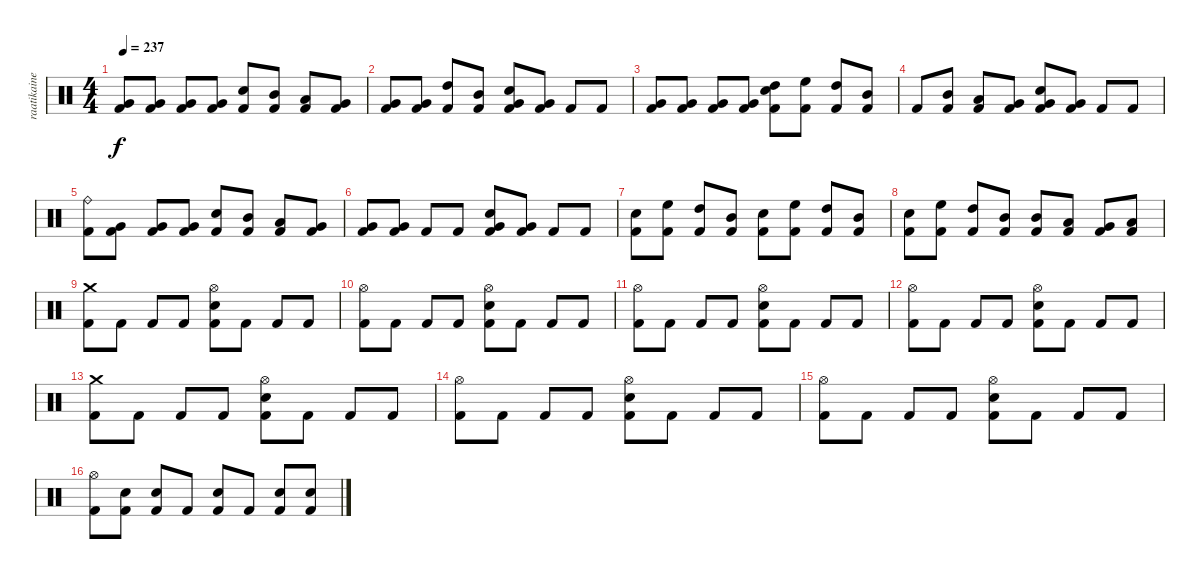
\track ("raatikainen" "raatikaine") {instrument percussion}
\staff {score}
\articulation defaults
\ts (4 4)
\tempo 237
\clef neutral
\ks c
("Very Low Tom (hit)" "Kick (hit) 2").8{dy f} ("Very Low Tom (hit)" "Kick (hit) 2").8 ("Very Low Tom (hit)" "Kick (hit) 2").8 ("Very Low Tom (hit)" "Kick (hit) 2").8 ("Snare (hit) 2" "Kick (hit) 2").8 ("Mid Tom (hit)" "Kick (hit) 2").8 ("Low Tom (hit)" "Kick (hit) 2").8 ("Very Low Tom (hit)" "Kick (hit) 2").8 |
("Very Low Tom (hit)" "Kick (hit) 2").8 ("Very Low Tom (hit)" "Kick (hit) 2").8 ("High Tom (hit)" "Kick (hit) 2").8 ("Mid Tom (hit)" "Kick (hit) 2").8 ("Very Low Tom (hit)" "Snare (hit) 2" "Kick (hit) 2").8 ("Very Low Tom (hit)" "Kick (hit) 2").8 "Kick (hit) 2".8 "Kick (hit) 2".8 |
("Very Low Tom (hit)" "Kick (hit) 2").8 ("Very Low Tom (hit)" "Kick (hit) 2").8 ("Very Low Tom (hit)" "Kick (hit) 2").8 ("Very Low Tom (hit)" "Kick (hit) 2").8 ("High Tom (hit)" "Snare (hit) 2" "Kick (hit) 2").8 ("High Floor Tom (hit)" "Kick (hit) 2").8 ("High Tom (hit)" "Kick (hit) 2").8 ("Mid Tom (hit)" "Kick (hit) 2").8 |
"Kick (hit) 2".8 ("Mid Tom (hit)" "Kick (hit) 2").8 ("Low Tom (hit)" "Kick (hit) 2").8 ("Very Low Tom (hit)" "Kick (hit) 2").8 ("Snare (hit) 2" "Very Low Tom (hit)" "Kick (hit) 2").8 ("Very Low Tom (hit)" "Kick (hit) 2").8 "Kick (hit) 2".8 "Kick (hit) 2".8 |
("Ride (bell)" "Kick (hit) 2").8{txt ""} ("Very Low Tom (hit)" "Kick (hit) 2").8 ("Very Low Tom (hit)" "Kick (hit) 2").8 ("Very Low Tom (hit)" "Kick (hit) 2").8 ("Snare (hit) 2" "Kick (hit) 2").8 ("Mid Tom (hit)" "Kick (hit) 2").8 ("Low Tom (hit)" "Kick (hit) 2").8 ("Very Low Tom (hit)" "Kick (hit) 2").8 |
("Very Low Tom (hit)" "Kick (hit) 2").8 ("Very Low Tom (hit)" "Kick (hit) 2").8 "Kick (hit) 2".8 "Kick (hit) 2".8 ("Snare (hit) 2" "Very Low Tom (hit)" "Kick (hit) 2").8 ("Very Low Tom (hit)" "Kick (hit) 2").8 "Kick (hit) 2".8 "Kick (hit) 2".8 |
("Snare (hit) 2" "Kick (hit) 2").8 ("High Floor Tom (hit)" "Kick (hit) 2").8 ("High Tom (hit)" "Kick (hit) 2").8 ("Mid Tom (hit)" "Kick (hit) 2").8 ("Snare (hit) 2" "Kick (hit) 2").8 ("High Floor Tom (hit)" "Kick (hit) 2").8 ("High Tom (hit)" "Kick (hit) 2").8 ("Mid Tom (hit)" "Kick (hit) 2").8 |
("Snare (hit) 2" "Kick (hit) 2").8 ("High Floor Tom (hit)" "Kick (hit) 2").8 ("High Tom (hit)" "Kick (hit) 2").8 ("Mid Tom (hit)" "Kick (hit) 2").8 ("Mid Tom (hit)" "Kick (hit) 2").8 ("Low Tom (hit)" "Kick (hit) 2").8 ("Very Low Tom (hit)" "Kick (hit) 2").8 ("Low Floor Tom (hit)" "Kick (hit) 2").8 |
("Crash medium (hit)" "Kick (hit) 2").8 "Kick (hit) 2".8 "Kick (hit) 2".8 "Kick (hit) 2".8 ("Hi-Hat (open)" "Snare (hit) 2" "Kick (hit) 2").8 "Kick (hit) 2".8 "Kick (hit) 2".8 "Kick (hit) 2".8 |
("Hi-Hat (open)" "Kick (hit) 2").8 "Kick (hit) 2".8 "Kick (hit) 2".8 "Kick (hit) 2".8 ("Hi-Hat (open)" "Snare (hit) 2" "Kick (hit) 2").8 "Kick (hit) 2".8 "Kick (hit) 2".8 "Kick (hit) 2".8 |
("Hi-Hat (open)" "Kick (hit) 2").8 "Kick (hit) 2".8 "Kick (hit) 2".8 "Kick (hit) 2".8 ("Hi-Hat (open)" "Snare (hit) 2" "Kick (hit) 2").8 "Kick (hit) 2".8 "Kick (hit) 2".8 "Kick (hit) 2".8 |
("Hi-Hat (open)" "Kick (hit) 2").8 "Kick (hit) 2".8 "Kick (hit) 2".8 "Kick (hit) 2".8 ("Hi-Hat (open)" "Snare (hit) 2" "Kick (hit) 2").8 "Kick (hit) 2".8 "Kick (hit) 2".8 "Kick (hit) 2".8 |
("Crash medium (hit)" "Kick (hit) 2").8 "Kick (hit) 2".8 "Kick (hit) 2".8 "Kick (hit) 2".8 ("Hi-Hat (open)" "Snare (hit) 2" "Kick (hit) 2").8 "Kick (hit) 2".8 "Kick (hit) 2".8 "Kick (hit) 2".8 |
("Hi-Hat (open)" "Kick (hit) 2").8 "Kick (hit) 2".8 "Kick (hit) 2".8 "Kick (hit) 2".8 ("Hi-Hat (open)" "Snare (hit) 2" "Kick (hit) 2").8 "Kick (hit) 2".8 "Kick (hit) 2".8 "Kick (hit) 2".8 |
("Hi-Hat (open)" "Kick (hit) 2").8 "Kick (hit) 2".8 "Kick (hit) 2".8 "Kick (hit) 2".8 ("Hi-Hat (open)" "Snare (hit) 2" "Kick (hit) 2").8 "Kick (hit) 2".8 "Kick (hit) 2".8 "Kick (hit) 2".8 |
("Hi-Hat (open)" "Kick (hit) 2").8 ("Snare (hit) 2" "Kick (hit) 2").8 ("Snare (hit) 2" "Kick (hit) 2").8 "Kick (hit) 2".8 ("Snare (hit) 2" "Kick (hit) 2").8 "Kick (hit) 2".8 ("Snare (hit) 2" "Kick (hit) 2").8 ("Snare (hit) 2" "Kick (hit) 2").8
